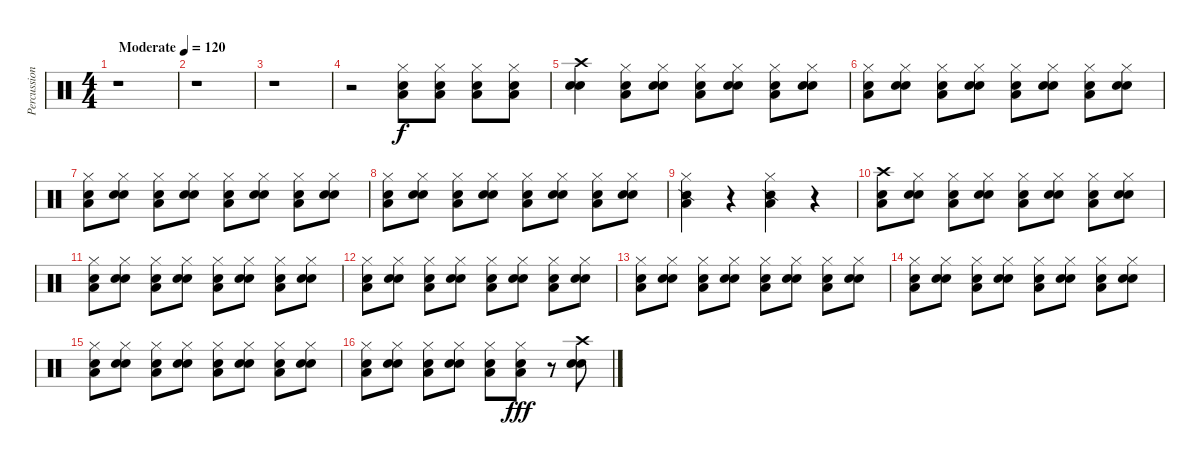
\track ("Percussions" "Percussion") {instrument percussion}
\staff {score}
\articulation defaults
\ts (4 4)
\tempo (120 "Moderate")
\clef neutral
\ks c
r.1{dy f} |
r.1 |
r.1 |
r.2 ("Low Floor Tom (hit)" "Snare (hit) 2" "Hi-Hat (closed)").8 ("Low Floor Tom (hit)" "Snare (hit) 2" "Hi-Hat (closed)").8 ("Low Floor Tom (hit)" "Snare (hit) 2" "Hi-Hat (closed)").8 ("Low Floor Tom (hit)" "Snare (hit) 2" "Hi-Hat (closed)").8 |
("Electric Snare (hit)" "Snare (hit) 2" "Crash high (hit)").4 ("Low Floor Tom (hit)" "Snare (hit) 2" "Hi-Hat (closed)").8 ("Electric Snare (hit)" "Snare (hit) 2" "Hi-Hat (closed)").8 ("Low Floor Tom (hit)" "Snare (hit) 2" "Hi-Hat (closed)").8 ("Electric Snare (hit)" "Snare (hit) 2" "Hi-Hat (closed)").8 ("Low Floor Tom (hit)" "Snare (hit) 2" "Hi-Hat (closed)").8 ("Electric Snare (hit)" "Snare (hit) 2" "Hi-Hat (closed)").8 |
("Low Floor Tom (hit)" "Snare (hit) 2" "Hi-Hat (closed)").8 ("Electric Snare (hit)" "Snare (hit) 2" "Hi-Hat (closed)").8 ("Low Floor Tom (hit)" "Snare (hit) 2" "Hi-Hat (closed)").8 ("Electric Snare (hit)" "Snare (hit) 2" "Hi-Hat (closed)").8 ("Low Floor Tom (hit)" "Snare (hit) 2" "Hi-Hat (closed)").8 ("Electric Snare (hit)" "Snare (hit) 2" "Hi-Hat (closed)").8 ("Low Floor Tom (hit)" "Snare (hit) 2" "Hi-Hat (closed)").8 ("Electric Snare (hit)" "Snare (hit) 2" "Hi-Hat (closed)").8 |
("Low Floor Tom (hit)" "Snare (hit) 2" "Hi-Hat (closed)").8 ("Electric Snare (hit)" "Snare (hit) 2" "Hi-Hat (closed)").8 ("Low Floor Tom (hit)" "Snare (hit) 2" "Hi-Hat (closed)").8 ("Electric Snare (hit)" "Snare (hit) 2" "Hi-Hat (closed)").8 ("Low Floor Tom (hit)" "Snare (hit) 2" "Hi-Hat (closed)").8 ("Electric Snare (hit)" "Snare (hit) 2" "Hi-Hat (closed)").8 ("Low Floor Tom (hit)" "Snare (hit) 2" "Hi-Hat (closed)").8 ("Electric Snare (hit)" "Snare (hit) 2" "Hi-Hat (closed)").8 |
("Low Floor Tom (hit)" "Snare (hit) 2" "Hi-Hat (closed)").8 ("Electric Snare (hit)" "Snare (hit) 2" "Hi-Hat (closed)").8 ("Low Floor Tom (hit)" "Snare (hit) 2" "Hi-Hat (closed)").8 ("Electric Snare (hit)" "Snare (hit) 2" "Hi-Hat (closed)").8 ("Low Floor Tom (hit)" "Snare (hit) 2" "Hi-Hat (closed)").8 ("Electric Snare (hit)" "Snare (hit) 2" "Hi-Hat (closed)").8 ("Low Floor Tom (hit)" "Snare (hit) 2" "Hi-Hat (closed)").8 ("Electric Snare (hit)" "Snare (hit) 2" "Hi-Hat (closed)").8 |
("Low Floor Tom (hit)" "Snare (side stick) 2" "Hi-Hat (closed)").4 r.4 ("Low Floor Tom (hit)" "Snare (side stick) 2" "Hi-Hat (closed)").4 r.4 |
("Low Floor Tom (hit)" "Snare (hit) 2" "Crash high (hit)").8 ("Electric Snare (hit)" "Snare (hit) 2" "Hi-Hat (closed)").8 ("Low Floor Tom (hit)" "Snare (hit) 2" "Hi-Hat (closed)").8 ("Electric Snare (hit)" "Snare (hit) 2" "Hi-Hat (closed)").8 ("Low Floor Tom (hit)" "Snare (hit) 2" "Hi-Hat (closed)").8 ("Electric Snare (hit)" "Snare (hit) 2" "Hi-Hat (closed)").8 ("Low Floor Tom (hit)" "Snare (hit) 2" "Hi-Hat (closed)").8 ("Electric Snare (hit)" "Snare (hit) 2" "Hi-Hat (closed)").8 |
("Low Floor Tom (hit)" "Snare (hit) 2" "Hi-Hat (closed)").8 ("Electric Snare (hit)" "Snare (hit) 2" "Hi-Hat (closed)").8 ("Low Floor Tom (hit)" "Snare (hit) 2" "Hi-Hat (closed)").8 ("Electric Snare (hit)" "Snare (hit) 2" "Hi-Hat (closed)").8 ("Low Floor Tom (hit)" "Snare (hit) 2" "Hi-Hat (closed)").8 ("Electric Snare (hit)" "Snare (hit) 2" "Hi-Hat (closed)").8 ("Low Floor Tom (hit)" "Snare (hit) 2" "Hi-Hat (closed)").8 ("Electric Snare (hit)" "Snare (hit) 2" "Hi-Hat (closed)").8 |
("Low Floor Tom (hit)" "Snare (hit) 2" "Hi-Hat (closed)").8 ("Electric Snare (hit)" "Snare (hit) 2" "Hi-Hat (closed)").8 ("Low Floor Tom (hit)" "Snare (hit) 2" "Hi-Hat (closed)").8 ("Electric Snare (hit)" "Snare (hit) 2" "Hi-Hat (closed)").8 ("Low Floor Tom (hit)" "Snare (hit) 2" "Hi-Hat (closed)").8 ("Electric Snare (hit)" "Snare (hit) 2" "Hi-Hat (closed)").8 ("Low Floor Tom (hit)" "Snare (hit) 2" "Hi-Hat (closed)").8 ("Electric Snare (hit)" "Snare (hit) 2" "Hi-Hat (closed)").8 |
("Low Floor Tom (hit)" "Snare (hit) 2" "Hi-Hat (closed)").8 ("Electric Snare (hit)" "Snare (hit) 2" "Hi-Hat (closed)").8 ("Low Floor Tom (hit)" "Snare (hit) 2" "Hi-Hat (closed)").8 ("Electric Snare (hit)" "Snare (hit) 2" "Hi-Hat (closed)").8 ("Low Floor Tom (hit)" "Snare (hit) 2" "Hi-Hat (closed)").8 ("Electric Snare (hit)" "Snare (hit) 2" "Hi-Hat (closed)").8 ("Low Floor Tom (hit)" "Snare (hit) 2" "Hi-Hat (closed)").8 ("Electric Snare (hit)" "Snare (hit) 2" "Hi-Hat (closed)").8 |
("Low Floor Tom (hit)" "Snare (hit) 2" "Hi-Hat (closed)").8 ("Electric Snare (hit)" "Snare (hit) 2" "Hi-Hat (closed)").8 ("Low Floor Tom (hit)" "Snare (hit) 2" "Hi-Hat (closed)").8 ("Electric Snare (hit)" "Snare (hit) 2" "Hi-Hat (closed)").8 ("Low Floor Tom (hit)" "Snare (hit) 2" "Hi-Hat (closed)").8 ("Electric Snare (hit)" "Snare (hit) 2" "Hi-Hat (closed)").8 ("Low Floor Tom (hit)" "Snare (hit) 2" "Hi-Hat (closed)").8 ("Electric Snare (hit)" "Snare (hit) 2" "Hi-Hat (closed)").8 |
("Low Floor Tom (hit)" "Snare (hit) 2" "Hi-Hat (closed)").8 ("Electric Snare (hit)" "Snare (hit) 2" "Hi-Hat (closed)").8 ("Low Floor Tom (hit)" "Snare (hit) 2" "Hi-Hat (closed)").8 ("Electric Snare (hit)" "Snare (hit) 2" "Hi-Hat (closed)").8 ("Low Floor Tom (hit)" "Snare (hit) 2" "Hi-Hat (closed)").8 ("Electric Snare (hit)" "Snare (hit) 2" "Hi-Hat (closed)").8 ("Low Floor Tom (hit)" "Snare (hit) 2" "Hi-Hat (closed)").8 ("Electric Snare (hit)" "Snare (hit) 2" "Hi-Hat (closed)").8 |
("Low Floor Tom (hit)" "Snare (hit) 2" "Hi-Hat (closed)").8 ("Electric Snare (hit)" "Snare (hit) 2" "Hi-Hat (closed)").8 ("Low Floor Tom (hit)" "Snare (hit) 2" "Hi-Hat (closed)").8 ("Electric Snare (hit)" "Snare (hit) 2" "Hi-Hat (closed)").8 ("Low Floor Tom (hit)" "Snare (hit) 2" "Hi-Hat (closed)").8 ("Low Floor Tom (hit)" "Snare (hit) 2" "Hi-Hat (closed)").8{dy fff} r.8 ("Electric Snare (hit)" "Snare (hit) 2" "Crash high (hit)").8
